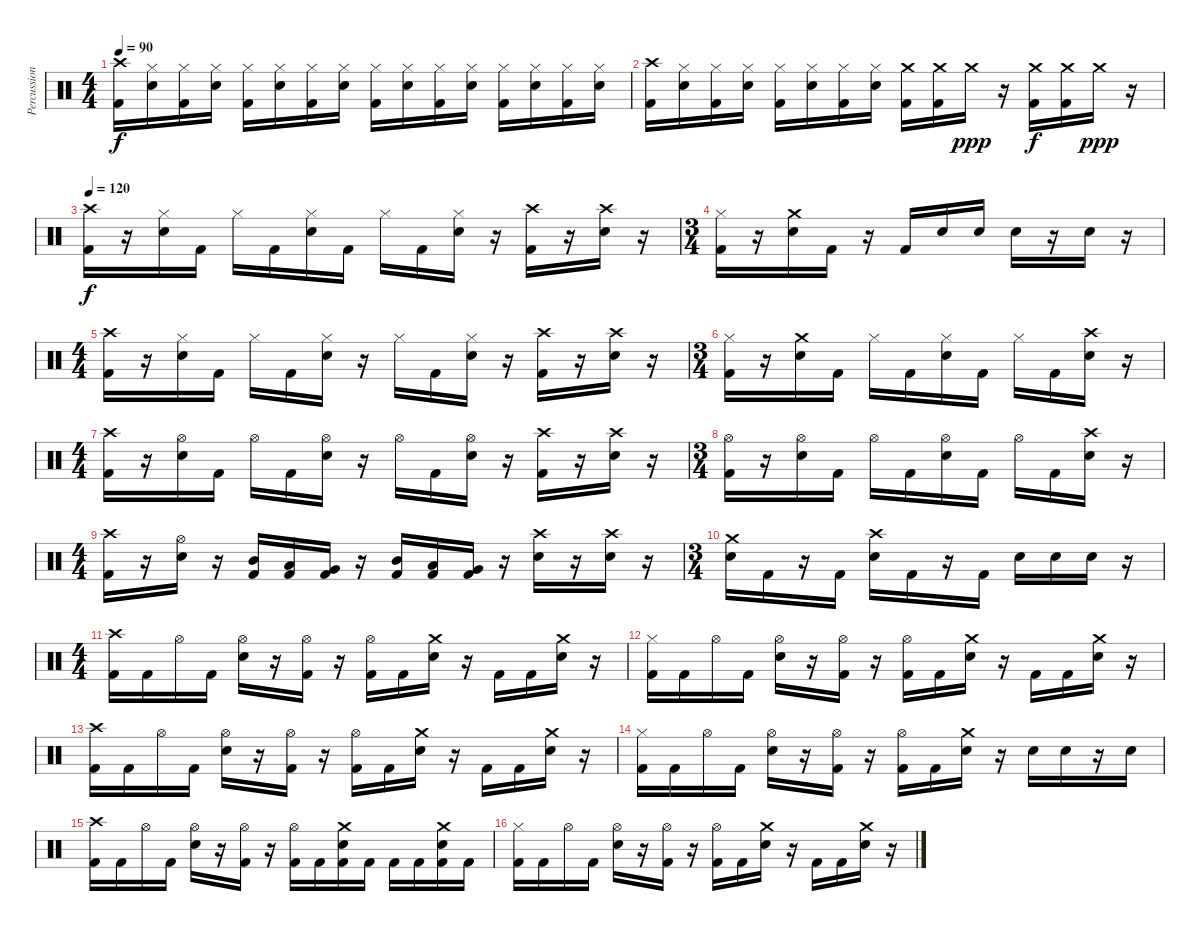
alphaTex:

\track ("Percussion" "Percussion") {instrument percussion}
\staff {score}
\articulation defaults
\ts (4 4)
\tempo 90
\clef neutral
\ks c
("Crash high (hit)" "Kick (hit) 2").16{dy f} ("Hi-Hat (closed)" "Snare (hit) 2").16 ("Hi-Hat (closed)" "Kick (hit) 2").16 ("Hi-Hat (closed)" "Snare (hit) 2").16 ("Hi-Hat (closed)" "Kick (hit) 2").16 ("Hi-Hat (closed)" "Snare (hit) 2").16 ("Hi-Hat (closed)" "Kick (hit) 2").16 ("Hi-Hat (closed)" "Snare (hit) 2").16 ("Hi-Hat (closed)" "Kick (hit) 2").16 ("Hi-Hat (closed)" "Snare (hit) 2").16 ("Hi-Hat (closed)" "Kick (hit) 2").16 ("Hi-Hat (closed)" "Snare (hit) 2").16 ("Hi-Hat (closed)" "Kick (hit) 2").16 ("Hi-Hat (closed)" "Snare (hit) 2").16 ("Hi-Hat (closed)" "Kick (hit) 2").16 ("Hi-Hat (closed)" "Snare (hit) 2").16 |
("Crash high (hit)" "Kick (hit) 2").16 ("Hi-Hat (closed)" "Snare (hit) 2").16 ("Hi-Hat (closed)" "Kick (hit) 2").16 ("Hi-Hat (closed)" "Snare (hit) 2").16 ("Hi-Hat (closed)" "Kick (hit) 2").16 ("Hi-Hat (closed)" "Snare (hit) 2").16 ("Hi-Hat (closed)" "Kick (hit) 2").16 ("Hi-Hat (closed)" "Snare (hit) 2").16 ("Crash medium (hit)" "Kick (hit) 2").16 ("Crash medium (hit)" "Kick (hit) 2").16 "Crash medium (hit)".16{dy ppp} r.16 ("Crash medium (hit)" "Kick (hit) 2").16{dy f} ("Crash medium (hit)" "Kick (hit) 2").16 "Crash medium (hit)".16{dy ppp} r.16 |
\tempo 120
("Crash high (hit)" "Kick (hit) 2").16{dy f} r.16 ("Hi-Hat (closed)" "Snare (hit) 2").16 "Kick (hit) 2".16 "Hi-Hat (closed)".16 "Kick (hit) 2".16 ("Hi-Hat (closed)" "Snare (hit) 2").16 "Kick (hit) 2".16 "Hi-Hat (closed)".16 "Kick (hit) 2".16 ("Hi-Hat (closed)" "Snare (hit) 2").16 r.16 ("Crash high (hit)" "Kick (hit) 2").16 r.16 ("Crash high (hit)" "Snare (hit) 2").16 r.16 |
\ts (3 4)
("Hi-Hat (closed)" "Kick (hit) 2").16 r.16 ("Crash medium (hit)" "Snare (hit) 2").16 "Kick (hit) 2".16 r.16 "Kick (hit) 2".16 "Snare (hit) 2".16 "Snare (hit) 2".16 "Snare (hit) 2".16 r.16 "Snare (hit) 2".16 r.16 |
\ts (4 4)
("Crash high (hit)" "Kick (hit) 2").16 r.16 ("Hi-Hat (closed)" "Snare (hit) 2").16 "Kick (hit) 2".16 "Hi-Hat (closed)".16 "Kick (hit) 2".16 ("Hi-Hat (closed)" "Snare (hit) 2").16 r.16 "Hi-Hat (closed)".16 "Kick (hit) 2".16 ("Hi-Hat (closed)" "Snare (hit) 2").16 r.16 ("Crash high (hit)" "Kick (hit) 2").16 r.16 ("Crash high (hit)" "Snare (hit) 2").16 r.16 |
\ts (3 4)
("Hi-Hat (closed)" "Kick (hit) 2").16 r.16 ("Crash medium (hit)" "Snare (hit) 2").16 "Kick (hit) 2".16 "Hi-Hat (closed)".16 "Kick (hit) 2".16 ("Hi-Hat (closed)" "Snare (hit) 2").16 "Kick (hit) 2".16 "Hi-Hat (closed)".16 "Kick (hit) 2".16 ("Crash high (hit)" "Snare (hit) 2").16 r.16 |
\ts (4 4)
("Crash high (hit)" "Kick (hit) 2").16 r.16 ("Hi-Hat (open)" "Snare (hit) 2").16 "Kick (hit) 2".16 "Hi-Hat (open)".16 "Kick (hit) 2".16 ("Hi-Hat (open)" "Snare (hit) 2").16 r.16 "Hi-Hat (open)".16 "Kick (hit) 2".16 ("Hi-Hat (open)" "Snare (hit) 2").16 r.16 ("Crash high (hit)" "Kick (hit) 2").16 r.16 ("Crash high (hit)" "Snare (hit) 2").16 r.16 |
\ts (3 4)
("Hi-Hat (open)" "Kick (hit) 2").16 r.16 ("Hi-Hat (open)" "Snare (hit) 2").16 "Kick (hit) 2".16 "Hi-Hat (open)".16 "Kick (hit) 2".16 ("Hi-Hat (open)" "Snare (hit) 2").16 "Kick (hit) 2".16 "Hi-Hat (open)".16 "Kick (hit) 2".16 ("Crash high (hit)" "Snare (hit) 2").16 r.16 |
\ts (4 4)
("Crash high (hit)" "Kick (hit) 2").16 r.16 ("Hi-Hat (open)" "Snare (hit) 2").16 r.16 ("Mid Tom (hit)" "Kick (hit) 2").16 ("Low Tom (hit)" "Kick (hit) 2").16 ("Very Low Tom (hit)" "Kick (hit) 2").16 r.16 ("Mid Tom (hit)" "Kick (hit) 2").16 ("Low Tom (hit)" "Kick (hit) 2").16 ("Very Low Tom (hit)" "Kick (hit) 2").16 r.16 ("Crash high (hit)" "Snare (hit) 2").16 r.16 ("Crash high (hit)" "Snare (hit) 2").16 r.16 |
\ts (3 4)
("Crash medium (hit)" "Snare (hit) 2").16 "Kick (hit) 2".16 r.16 "Kick (hit) 2".16 ("Crash high (hit)" "Snare (hit) 2").16 "Kick (hit) 2".16 r.16 "Kick (hit) 2".16 "Snare (hit) 2".16 "Snare (hit) 2".16 "Snare (hit) 2".16 r.16 |
\ts (4 4)
("Crash high (hit)" "Kick (hit) 2").16 "Kick (hit) 2".16 "Hi-Hat (open)".16 "Kick (hit) 2".16 ("Hi-Hat (open)" "Snare (hit) 2").16 r.16 ("Hi-Hat (open)" "Kick (hit) 2").16 r.16 ("Hi-Hat (open)" "Kick (hit) 2").16 "Kick (hit) 2".16 ("Crash medium (hit)" "Snare (hit) 2").16 r.16 "Kick (hit) 2".16 "Kick (hit) 2".16 ("Crash medium (hit)" "Snare (hit) 2").16 r.16 |
("Hi-Hat (closed)" "Kick (hit) 2").16 "Kick (hit) 2".16 "Hi-Hat (open)".16 "Kick (hit) 2".16 ("Hi-Hat (open)" "Snare (hit) 2").16 r.16 ("Hi-Hat (open)" "Kick (hit) 2").16 r.16 ("Hi-Hat (open)" "Kick (hit) 2").16 "Kick (hit) 2".16 ("Crash medium (hit)" "Snare (hit) 2").16 r.16 "Kick (hit) 2".16 "Kick (hit) 2".16 ("Crash medium (hit)" "Snare (hit) 2").16 r.16 |
("Crash high (hit)" "Kick (hit) 2").16 "Kick (hit) 2".16 "Hi-Hat (open)".16 "Kick (hit) 2".16 ("Hi-Hat (open)" "Snare (hit) 2").16 r.16 ("Hi-Hat (open)" "Kick (hit) 2").16 r.16 ("Hi-Hat (open)" "Kick (hit) 2").16 "Kick (hit) 2".16 ("Crash medium (hit)" "Snare (hit) 2").16 r.16 "Kick (hit) 2".16 "Kick (hit) 2".16 ("Crash medium (hit)" "Snare (hit) 2").16 r.16 |
("Hi-Hat (closed)" "Kick (hit) 2").16 "Kick (hit) 2".16 "Hi-Hat (open)".16 "Kick (hit) 2".16 ("Hi-Hat (open)" "Snare (hit) 2").16 r.16 ("Hi-Hat (open)" "Kick (hit) 2").16 r.16 ("Hi-Hat (open)" "Kick (hit) 2").16 "Kick (hit) 2".16 ("Crash medium (hit)" "Snare (hit) 2").16 r.16 "Snare (hit) 2".16 "Snare (hit) 2".16 r.16 "Snare (hit) 2".16 |
("Crash high (hit)" "Kick (hit) 2").16 "Kick (hit) 2".16 "Hi-Hat (open)".16 "Kick (hit) 2".16 ("Hi-Hat (open)" "Snare (hit) 2").16 r.16 ("Hi-Hat (open)" "Kick (hit) 2").16 r.16 ("Hi-Hat (open)" "Kick (hit) 2").16 "Kick (hit) 2".16 ("Crash medium (hit)" "Snare (hit) 2" "Kick (hit) 2").16 "Kick (hit) 2".16 "Kick (hit) 2".16 "Kick (hit) 2".16 ("Crash medium (hit)" "Snare (hit) 2" "Kick (hit) 2").16 "Kick (hit) 2".16 |
("Hi-Hat (closed)" "Kick (hit) 2").16 "Kick (hit) 2".16 "Hi-Hat (open)".16 "Kick (hit) 2".16 ("Hi-Hat (open)" "Snare (hit) 2").16 r.16 ("Hi-Hat (open)" "Kick (hit) 2").16 r.16 ("Hi-Hat (open)" "Kick (hit) 2").16 "Kick (hit) 2".16 ("Crash medium (hit)" "Snare (hit) 2").16 r.16 "Kick (hit) 2".16 "Kick (hit) 2".16 ("Crash medium (hit)" "Snare (hit) 2").16 r.16
